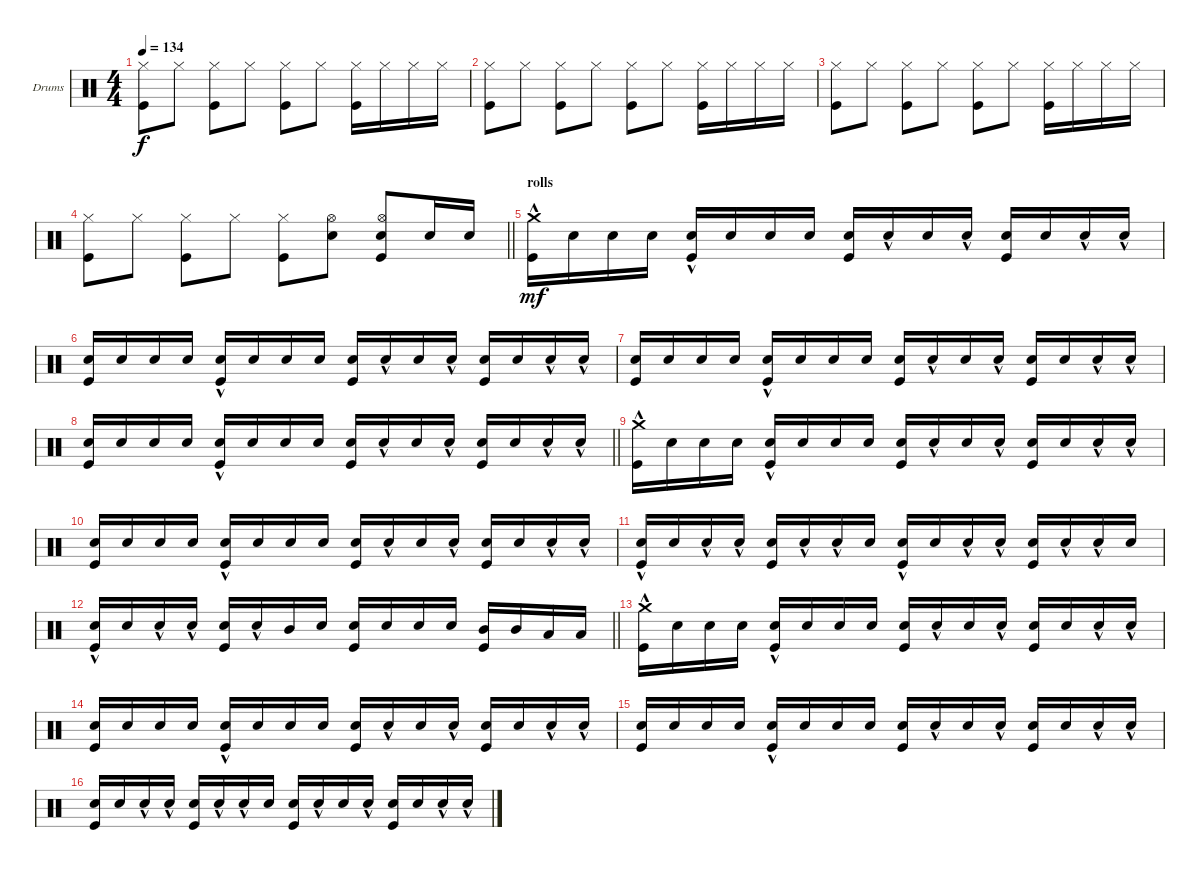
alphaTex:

\bracketExtendMode groupsimilarinstruments
\firstSystemTrackNameOrientation horizontal
\otherSystemsTrackNameOrientation horizontal
\track ("Drumkit" "Drums") {instrument percussion}
\staff {score}
\articulation defaults
\ts (4 4)
\tempo 134
\clef neutral
\ks c
("Hi-Hat (closed)" "Kick (hit)").8{dy f} "Hi-Hat (closed)".8 ("Hi-Hat (closed)" "Kick (hit)").8 "Hi-Hat (closed)".8 ("Hi-Hat (closed)" "Kick (hit)").8 "Hi-Hat (closed)".8 ("Hi-Hat (closed)" "Kick (hit)").16 "Hi-Hat (closed)".16 "Hi-Hat (closed)".16 "Hi-Hat (closed)".16 |
("Hi-Hat (closed)" "Kick (hit)").8 "Hi-Hat (closed)".8 ("Hi-Hat (closed)" "Kick (hit)").8 "Hi-Hat (closed)".8 ("Hi-Hat (closed)" "Kick (hit)").8 "Hi-Hat (closed)".8 ("Hi-Hat (closed)" "Kick (hit)").16 "Hi-Hat (closed)".16 "Hi-Hat (closed)".16 "Hi-Hat (closed)".16 |
("Hi-Hat (closed)" "Kick (hit)").8 "Hi-Hat (closed)".8 ("Hi-Hat (closed)" "Kick (hit)").8 "Hi-Hat (closed)".8 ("Hi-Hat (closed)" "Kick (hit)").8 "Hi-Hat (closed)".8 ("Hi-Hat (closed)" "Kick (hit)").16 "Hi-Hat (closed)".16 "Hi-Hat (closed)".16 "Hi-Hat (closed)".16 |
\barLineRight lightlight
("Hi-Hat (closed)" "Kick (hit)").8 "Hi-Hat (closed)".8 ("Hi-Hat (closed)" "Kick (hit)").8 "Hi-Hat (closed)".8 ("Hi-Hat (closed)" "Kick (hit)").8 ("Hi-Hat (open)" "Snare (hit) 2").8 ("Hi-Hat (open)" "Snare (hit) 2" "Kick (hit)").8 "Snare (hit) 2".16 "Snare (hit) 2".16 |
\section ("" "rolls")
("Crash medium (hit)"{hac} "Kick (hit)").16{dy mf} "Snare (hit) 2".16 "Snare (hit) 2".16 "Snare (hit) 2".16 ("Snare (hit) 2"{hac} "Kick (hit)").16 "Snare (hit) 2".16 "Snare (hit) 2".16 "Snare (hit) 2".16 ("Snare (hit) 2" "Kick (hit)").16 "Snare (hit) 2"{hac}.16 "Snare (hit) 2".16 "Snare (hit) 2"{hac}.16 ("Snare (hit) 2" "Kick (hit)").16 "Snare (hit) 2".16 "Snare (hit) 2"{hac}.16 "Snare (hit) 2"{hac}.16 |
("Snare (hit) 2" "Kick (hit)").16 "Snare (hit) 2".16 "Snare (hit) 2".16 "Snare (hit) 2".16 ("Snare (hit) 2"{hac} "Kick (hit)").16 "Snare (hit) 2".16 "Snare (hit) 2".16 "Snare (hit) 2".16 ("Snare (hit) 2" "Kick (hit)").16 "Snare (hit) 2"{hac}.16 "Snare (hit) 2".16 "Snare (hit) 2"{hac}.16 ("Snare (hit) 2" "Kick (hit)").16 "Snare (hit) 2".16 "Snare (hit) 2"{hac}.16 "Snare (hit) 2"{hac}.16 |
("Snare (hit) 2" "Kick (hit)").16 "Snare (hit) 2".16 "Snare (hit) 2".16 "Snare (hit) 2".16 ("Snare (hit) 2"{hac} "Kick (hit)").16 "Snare (hit) 2".16 "Snare (hit) 2".16 "Snare (hit) 2".16 ("Snare (hit) 2" "Kick (hit)").16 "Snare (hit) 2"{hac}.16 "Snare (hit) 2".16 "Snare (hit) 2"{hac}.16 ("Snare (hit) 2" "Kick (hit)").16 "Snare (hit) 2".16 "Snare (hit) 2"{hac}.16 "Snare (hit) 2"{hac}.16 |
\barLineRight lightlight
("Snare (hit) 2" "Kick (hit)").16 "Snare (hit) 2".16 "Snare (hit) 2".16 "Snare (hit) 2".16 ("Snare (hit) 2"{hac} "Kick (hit)").16 "Snare (hit) 2".16 "Snare (hit) 2".16 "Snare (hit) 2".16 ("Snare (hit) 2" "Kick (hit)").16 "Snare (hit) 2"{hac}.16 "Snare (hit) 2".16 "Snare (hit) 2"{hac}.16 ("Snare (hit) 2" "Kick (hit)").16 "Snare (hit) 2".16 "Snare (hit) 2"{hac}.16 "Snare (hit) 2"{hac}.16 |
("Crash medium (hit)"{hac} "Kick (hit)").16 "Snare (hit) 2".16 "Snare (hit) 2".16 "Snare (hit) 2".16 ("Snare (hit) 2"{hac} "Kick (hit)").16 "Snare (hit) 2".16 "Snare (hit) 2".16 "Snare (hit) 2".16 ("Snare (hit) 2" "Kick (hit)").16 "Snare (hit) 2"{hac}.16 "Snare (hit) 2".16 "Snare (hit) 2"{hac}.16 ("Snare (hit) 2" "Kick (hit)").16 "Snare (hit) 2".16 "Snare (hit) 2"{hac}.16 "Snare (hit) 2"{hac}.16 |
("Snare (hit) 2" "Kick (hit)").16 "Snare (hit) 2".16 "Snare (hit) 2".16 "Snare (hit) 2".16 ("Snare (hit) 2"{hac} "Kick (hit)").16 "Snare (hit) 2".16 "Snare (hit) 2".16 "Snare (hit) 2".16 ("Snare (hit) 2" "Kick (hit)").16 "Snare (hit) 2"{hac}.16 "Snare (hit) 2".16 "Snare (hit) 2"{hac}.16 ("Snare (hit) 2" "Kick (hit)").16 "Snare (hit) 2".16 "Snare (hit) 2"{hac}.16 "Snare (hit) 2"{hac}.16 |
("Snare (hit) 2"{hac} "Kick (hit)").16 "Snare (hit) 2".16 "Snare (hit) 2"{hac}.16 "Snare (hit) 2"{hac}.16 ("Snare (hit) 2" "Kick (hit)").16 "Snare (hit) 2"{hac}.16 "Snare (hit) 2"{hac}.16 "Snare (hit) 2".16 ("Snare (hit) 2"{hac} "Kick (hit)").16 "Snare (hit) 2".16 "Snare (hit) 2"{hac}.16 "Snare (hit) 2"{hac}.16 ("Snare (hit) 2" "Kick (hit)").16 "Snare (hit) 2"{hac}.16 "Snare (hit) 2"{hac}.16 "Snare (hit) 2".16 |
\barLineRight lightlight
("Snare (hit) 2"{hac} "Kick (hit)").16 "Snare (hit) 2".16 "Snare (hit) 2"{hac}.16 "Snare (hit) 2"{hac}.16 ("Snare (hit) 2" "Kick (hit)").16 "Snare (hit) 2"{hac}.16 "Mid Tom (hit)".16 "Snare (hit) 2".16 ("Snare (hit) 2" "Kick (hit)").16 "Snare (hit) 2".16 "Snare (hit) 2".16 "Snare (hit) 2".16 ("Mid Tom (hit)" "Kick (hit)").16 "Mid Tom (hit)".16 "Low Tom (hit)".16 "Low Tom (hit)".16 |
("Crash medium (hit)"{hac} "Kick (hit)").16 "Snare (hit) 2".16 "Snare (hit) 2".16 "Snare (hit) 2".16 ("Snare (hit) 2"{hac} "Kick (hit)").16 "Snare (hit) 2".16 "Snare (hit) 2".16 "Snare (hit) 2".16 ("Snare (hit) 2" "Kick (hit)").16 "Snare (hit) 2"{hac}.16 "Snare (hit) 2".16 "Snare (hit) 2"{hac}.16 ("Snare (hit) 2" "Kick (hit)").16 "Snare (hit) 2".16 "Snare (hit) 2"{hac}.16 "Snare (hit) 2"{hac}.16 |
("Snare (hit) 2" "Kick (hit)").16 "Snare (hit) 2".16 "Snare (hit) 2".16 "Snare (hit) 2".16 ("Snare (hit) 2"{hac} "Kick (hit)").16 "Snare (hit) 2".16 "Snare (hit) 2".16 "Snare (hit) 2".16 ("Snare (hit) 2" "Kick (hit)").16 "Snare (hit) 2"{hac}.16 "Snare (hit) 2".16 "Snare (hit) 2"{hac}.16 ("Snare (hit) 2" "Kick (hit)").16 "Snare (hit) 2".16 "Snare (hit) 2"{hac}.16 "Snare (hit) 2"{hac}.16 |
("Snare (hit) 2" "Kick (hit)").16 "Snare (hit) 2".16 "Snare (hit) 2".16 "Snare (hit) 2".16 ("Snare (hit) 2"{hac} "Kick (hit)").16 "Snare (hit) 2".16 "Snare (hit) 2".16 "Snare (hit) 2".16 ("Snare (hit) 2" "Kick (hit)").16 "Snare (hit) 2"{hac}.16 "Snare (hit) 2".16 "Snare (hit) 2"{hac}.16 ("Snare (hit) 2" "Kick (hit)").16 "Snare (hit) 2".16 "Snare (hit) 2"{hac}.16 "Snare (hit) 2"{hac}.16 |
("Snare (hit) 2" "Kick (hit)").16 "Snare (hit) 2".16 "Snare (hit) 2"{hac}.16 "Snare (hit) 2"{hac}.16 ("Snare (hit) 2" "Kick (hit)").16 "Snare (hit) 2"{hac}.16 "Snare (hit) 2"{hac}.16 "Snare (hit) 2".16 ("Snare (hit) 2" "Kick (hit)").16 "Snare (hit) 2"{hac}.16 "Snare (hit) 2".16 "Snare (hit) 2"{hac}.16 ("Snare (hit) 2" "Kick (hit)").16 "Snare (hit) 2".16 "Snare (hit) 2"{hac}.16 "Snare (hit) 2"{hac}.16
